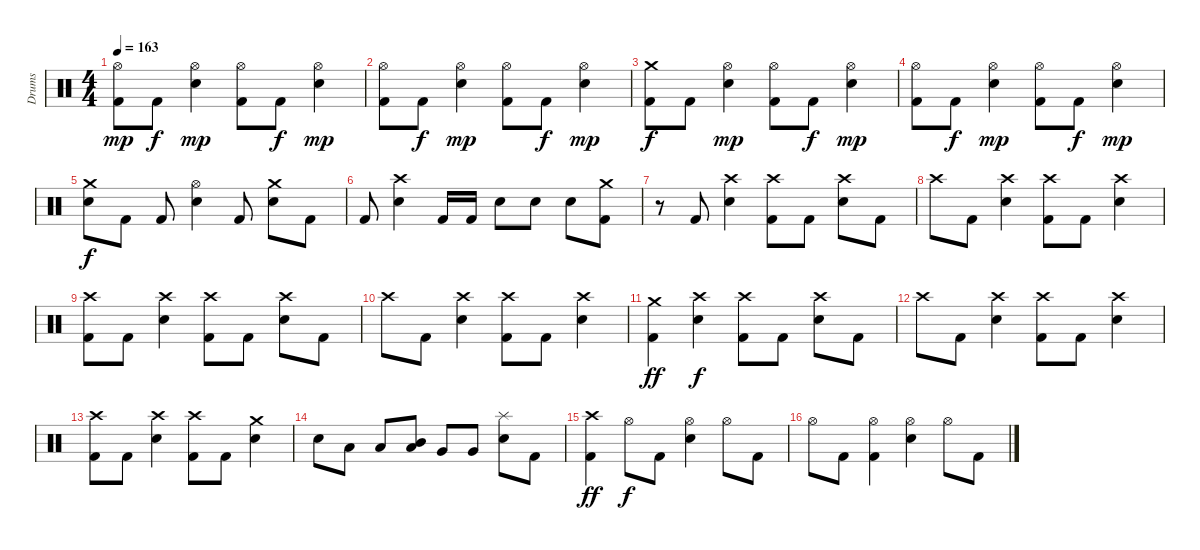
\track ("Drums" "Drums") {instrument percussion}
\staff {score}
\articulation defaults
\ts (4 4)
\tempo 163
\clef neutral
\ks c
("Hi-Hat (open)" "Kick (hit) 2").8{dy mp} "Kick (hit) 2".8{dy f} ("Hi-Hat (open)" "Snare (hit) 2").4{dy mp} ("Hi-Hat (open)" "Kick (hit) 2").8 "Kick (hit) 2".8{dy f} ("Hi-Hat (open)" "Snare (hit) 2").4{dy mp} |
("Hi-Hat (open)" "Kick (hit) 2").8 "Kick (hit) 2".8{dy f} ("Hi-Hat (open)" "Snare (hit) 2").4{dy mp} ("Hi-Hat (open)" "Kick (hit) 2").8 "Kick (hit) 2".8{dy f} ("Hi-Hat (open)" "Snare (hit) 2").4{dy mp} |
("Crash medium (hit)" "Kick (hit) 2").8{dy f} "Kick (hit) 2".8 ("Hi-Hat (open)" "Snare (hit) 2").4{dy mp} ("Hi-Hat (open)" "Kick (hit) 2").8 "Kick (hit) 2".8{dy f} ("Hi-Hat (open)" "Snare (hit) 2").4{dy mp} |
("Hi-Hat (open)" "Kick (hit) 2").8 "Kick (hit) 2".8{dy f} ("Hi-Hat (open)" "Snare (hit) 2").4{dy mp} ("Hi-Hat (open)" "Kick (hit) 2").8 "Kick (hit) 2".8{dy f} ("Hi-Hat (open)" "Snare (hit) 2").4{dy mp} |
("Crash medium (hit)" "Snare (hit) 2").8{dy f} "Kick (hit) 2".8 "Kick (hit) 2".8 ("Hi-Hat (open)" "Snare (hit) 2").4 "Kick (hit) 2".8 ("Crash medium (hit)" "Snare (hit) 2").8 "Kick (hit) 2".8 |
"Kick (hit) 2".8 ("Crash high (hit)" "Snare (hit) 2").4 "Kick (hit) 2".16 "Kick (hit) 2".16 "Snare (hit) 2".8 "Snare (hit) 2".8 "Snare (hit) 2".8 ("Crash medium (hit)" "Kick (hit) 2").8 |
r.8 "Kick (hit) 2".8 ("Crash high (hit)" "Snare (hit) 2").4 ("Crash high (hit)" "Kick (hit) 2").8 "Kick (hit) 2".8 ("Crash high (hit)" "Snare (hit) 2").8 "Kick (hit) 2".8 |
"Crash high (hit)".8 "Kick (hit) 2".8 ("Crash high (hit)" "Snare (hit) 2").4 ("Crash high (hit)" "Kick (hit) 2").8 "Kick (hit) 2".8 ("Crash high (hit)" "Snare (hit) 2").4 |
("Crash high (hit)" "Kick (hit) 2").8 "Kick (hit) 2".8 ("Crash high (hit)" "Snare (hit) 2").4 ("Crash high (hit)" "Kick (hit) 2").8 "Kick (hit) 2".8 ("Crash high (hit)" "Snare (hit) 2").8 "Kick (hit) 2".8 |
"Crash high (hit)".8 "Kick (hit) 2".8 ("Crash high (hit)" "Snare (hit) 2").4 ("Crash high (hit)" "Kick (hit) 2").8 "Kick (hit) 2".8 ("Crash high (hit)" "Snare (hit) 2").4 |
("Crash medium (hit)" "Kick (hit) 2").4{dy ff} ("Crash high (hit)" "Snare (hit) 2").4{dy f} ("Crash high (hit)" "Kick (hit) 2").8 "Kick (hit) 2".8 ("Crash high (hit)" "Snare (hit) 2").8 "Kick (hit) 2".8 |
"Crash high (hit)".8 "Kick (hit) 2".8 ("Crash high (hit)" "Snare (hit) 2").4 ("Crash high (hit)" "Kick (hit) 2").8 "Kick (hit) 2".8 ("Crash high (hit)" "Snare (hit) 2").4 |
("Crash high (hit)" "Kick (hit) 2").8 "Kick (hit) 2".8 ("Crash high (hit)" "Snare (hit) 2").4 ("Crash high (hit)" "Kick (hit) 2").8 "Kick (hit) 2".8 ("Crash medium (hit)" "Snare (hit) 2").4 |
"Snare (hit) 2".8 "Low Tom (hit)".8 "Low Tom (hit)".8 ("Mid Tom (hit)" "Low Tom (hit)").8 "Very Low Tom (hit)".8 "Very Low Tom (hit)".8 ("Splash (hit)" "Snare (hit) 2").8 "Kick (hit) 2".8 |
("Crash high (hit)" "Kick (hit) 2").4{dy ff} "Hi-Hat (open)".8{dy f} "Kick (hit) 2".8 ("Hi-Hat (open)" "Snare (hit) 2").4 "Hi-Hat (open)".8 "Kick (hit) 2".8 |
"Hi-Hat (open)".8 "Kick (hit) 2".8 ("Hi-Hat (open)" "Kick (hit) 2").4 ("Hi-Hat (open)" "Snare (hit) 2").4 "Hi-Hat (open)".8 "Kick (hit) 2".8
